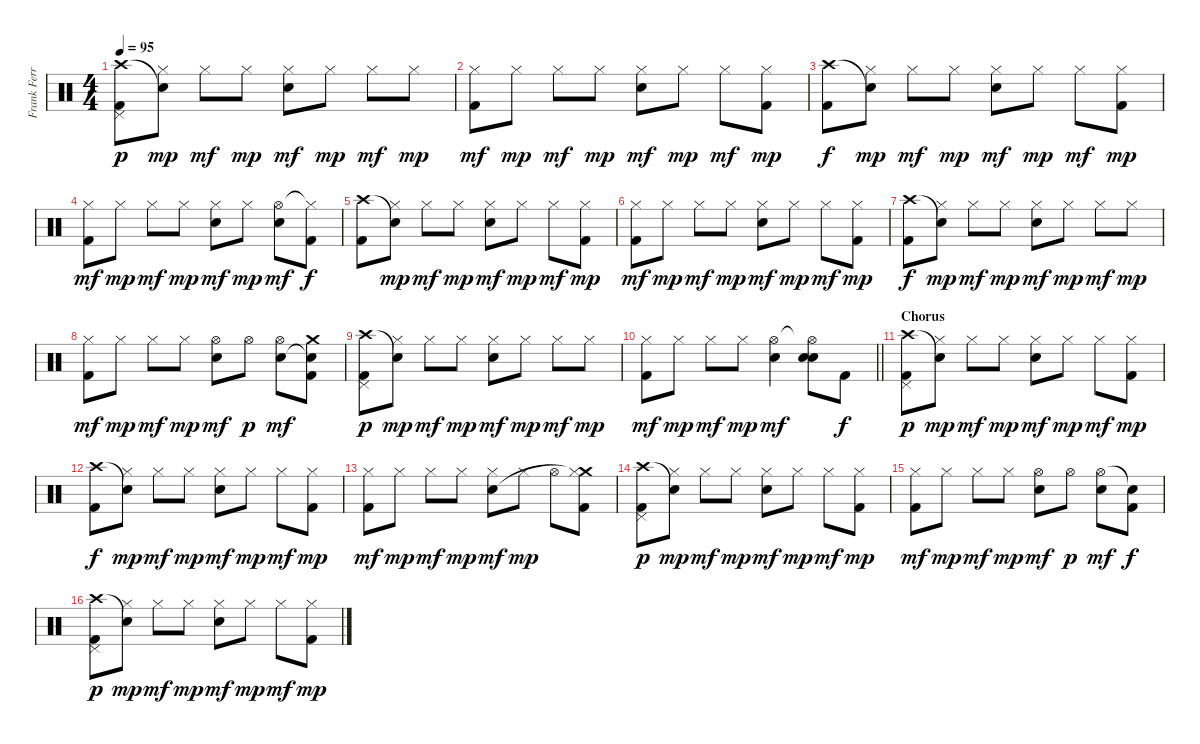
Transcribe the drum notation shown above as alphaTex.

\track ("Frank Ferrer - Drums" "Frank Ferr") {instrument percussion}
\staff {score}
\articulation defaults
\ts (4 4)
\tempo 95
\clef neutral
\ks c
("Crash high (hit)" "Pedal Hi-Hat (hit)" "Kick (hit) 2").8{dy p} ("Snare (hit)"{t} "Hi-Hat (closed)").8{dy mp} "Hi-Hat (closed)".8{dy mf} "Hi-Hat (closed)".8{dy mp} ("Hi-Hat (closed)" "Electric Snare (hit)").8{dy mf} "Hi-Hat (closed)".8{dy mp} "Hi-Hat (closed)".8{dy mf} "Hi-Hat (closed)".8{dy mp} |
("Hi-Hat (closed)" "Kick (hit) 2").8{dy mf} "Hi-Hat (closed)".8{dy mp} "Hi-Hat (closed)".8{dy mf} "Hi-Hat (closed)".8{dy mp} ("Hi-Hat (closed)" "Electric Snare (hit)").8{dy mf} "Hi-Hat (closed)".8{dy mp} "Hi-Hat (closed)".8{dy mf} ("Hi-Hat (closed)" "Kick (hit) 2").8{dy mp} |
("Crash high (hit)" "Kick (hit) 2").8{dy f} ("Snare (hit)"{t} "Hi-Hat (closed)").8{dy mp} "Hi-Hat (closed)".8{dy mf} "Hi-Hat (closed)".8{dy mp} ("Hi-Hat (closed)" "Electric Snare (hit)").8{dy mf} "Hi-Hat (closed)".8{dy mp} "Hi-Hat (closed)".8{dy mf} ("Hi-Hat (closed)" "Kick (hit) 2").8{dy mp} |
("Hi-Hat (closed)" "Kick (hit) 2").8{dy mf} "Hi-Hat (closed)".8{dy mp} "Hi-Hat (closed)".8{dy mf} "Hi-Hat (closed)".8{dy mp} ("Hi-Hat (closed)" "Electric Snare (hit)").8{dy mf} "Hi-Hat (closed)".8{dy mp} ("Hi-Hat (open)" "Electric Snare (hit)").8{dy mf} ("Hi-Hat (closed)"{t} "Kick (hit) 2").8{dy f} |
("Crash high (hit)" "Kick (hit) 2").8 ("Snare (hit)"{t} "Hi-Hat (closed)").8{dy mp} "Hi-Hat (closed)".8{dy mf} "Hi-Hat (closed)".8{dy mp} ("Hi-Hat (closed)" "Electric Snare (hit)").8{dy mf} "Hi-Hat (closed)".8{dy mp} "Hi-Hat (closed)".8{dy mf} ("Hi-Hat (closed)" "Kick (hit) 2").8{dy mp} |
("Hi-Hat (closed)" "Kick (hit) 2").8{dy mf} "Hi-Hat (closed)".8{dy mp} "Hi-Hat (closed)".8{dy mf} "Hi-Hat (closed)".8{dy mp} ("Hi-Hat (closed)" "Electric Snare (hit)").8{dy mf} "Hi-Hat (closed)".8{dy mp} "Hi-Hat (closed)".8{dy mf} ("Hi-Hat (closed)" "Kick (hit) 2").8{dy mp} |
("Crash high (hit)" "Kick (hit) 2").8{dy f} ("Snare (hit)"{t} "Hi-Hat (closed)").8{dy mp} "Hi-Hat (closed)".8{dy mf} "Hi-Hat (closed)".8{dy mp} ("Hi-Hat (closed)" "Electric Snare (hit)").8{dy mf} "Hi-Hat (closed)".8{dy mp} "Hi-Hat (closed)".8{dy mf} "Hi-Hat (closed)".8{dy mp} |
("Hi-Hat (closed)" "Kick (hit) 2").8{dy mf} "Hi-Hat (closed)".8{dy mp} "Hi-Hat (closed)".8{dy mf} "Hi-Hat (closed)".8{dy mp} ("Hi-Hat (open)" "Electric Snare (hit)").8{dy mf} "Hi-Hat (open)".8{dy p} ("Hi-Hat (open)" "Electric Snare (hit)").8{dy mf} ("Crash medium (hit)" "Snare (hit)"{t} "Kick (hit) 2").8 |
("Crash high (hit)" "Pedal Hi-Hat (hit)" "Kick (hit) 2").8{dy p} ("Snare (hit)"{t} "Hi-Hat (closed)").8{dy mp} "Hi-Hat (closed)".8{dy mf} "Hi-Hat (closed)".8{dy mp} ("Hi-Hat (closed)" "Electric Snare (hit)").8{dy mf} "Hi-Hat (closed)".8{dy mp} "Hi-Hat (closed)".8{dy mf} "Hi-Hat (closed)".8{dy mp} |
\barLineRight lightlight
("Hi-Hat (closed)" "Kick (hit) 2").8{dy mf} "Hi-Hat (closed)".8{dy mp} "Hi-Hat (closed)".8{dy mf} "Hi-Hat (closed)".8{dy mp} ("Hi-Hat (open)" "Electric Snare (hit)").4{dy mf} ("Hi-Hat (open)"{t} "Electric Snare (hit)" "Electric Snare (hit)").8{bu 120} "Kick (hit) 2".8{dy f} |
\section ("" "Chorus")
("Crash high (hit)" "Pedal Hi-Hat (hit)" "Kick (hit) 2").8{dy p} ("Snare (hit)"{t} "Hi-Hat (closed)").8{dy mp} "Hi-Hat (closed)".8{dy mf} "Hi-Hat (closed)".8{dy mp} ("Hi-Hat (closed)" "Electric Snare (hit)").8{dy mf} "Hi-Hat (closed)".8{dy mp} "Hi-Hat (closed)".8{dy mf} ("Hi-Hat (closed)" "Kick (hit) 2").8{dy mp} |
("Crash high (hit)" "Kick (hit) 2").8{dy f} ("Snare (hit)"{t} "Hi-Hat (closed)").8{dy mp} "Hi-Hat (closed)".8{dy mf} "Hi-Hat (closed)".8{dy mp} ("Hi-Hat (closed)" "Electric Snare (hit)").8{dy mf} "Hi-Hat (closed)".8{dy mp} "Hi-Hat (closed)".8{dy mf} ("Hi-Hat (closed)" "Kick (hit) 2").8{dy mp} |
("Hi-Hat (closed)" "Kick (hit) 2").8{dy mf} "Hi-Hat (closed)".8{dy mp} "Hi-Hat (closed)".8{dy mf} "Hi-Hat (closed)".8{dy mp} ("Hi-Hat (closed)" "Electric Snare (hit)").8{dy mf} "Hi-Hat (closed)".8{dy mp} "Hi-Hat (open)".8 ("Crash medium (hit)" "Hi-Hat (closed)"{t} "Kick (hit) 2").8 |
("Crash high (hit)" "Pedal Hi-Hat (hit)" "Kick (hit) 2").8{dy p} ("Snare (hit)"{t} "Hi-Hat (closed)").8{dy mp} "Hi-Hat (closed)".8{dy mf} "Hi-Hat (closed)".8{dy mp} ("Hi-Hat (closed)" "Electric Snare (hit)").8{dy mf} "Hi-Hat (closed)".8{dy mp} "Hi-Hat (closed)".8{dy mf} ("Hi-Hat (closed)" "Kick (hit) 2").8{dy mp} |
("Hi-Hat (closed)" "Kick (hit) 2").8{dy mf} "Hi-Hat (closed)".8{dy mp} "Hi-Hat (closed)".8{dy mf} "Hi-Hat (closed)".8{dy mp} ("Hi-Hat (open)" "Electric Snare (hit)").8{dy mf} "Hi-Hat (open)".8{dy p} ("Hi-Hat (open)" "Electric Snare (hit)").8{dy mf} ("Snare (hit)"{t} "Kick (hit) 2").8{dy f} |
("Crash high (hit)" "Pedal Hi-Hat (hit)" "Kick (hit) 2").8{dy p} ("Snare (hit)"{t} "Hi-Hat (closed)").8{dy mp} "Hi-Hat (closed)".8{dy mf} "Hi-Hat (closed)".8{dy mp} ("Hi-Hat (closed)" "Electric Snare (hit)").8{dy mf} "Hi-Hat (closed)".8{dy mp} "Hi-Hat (closed)".8{dy mf} ("Hi-Hat (closed)" "Kick (hit) 2").8{dy mp}
